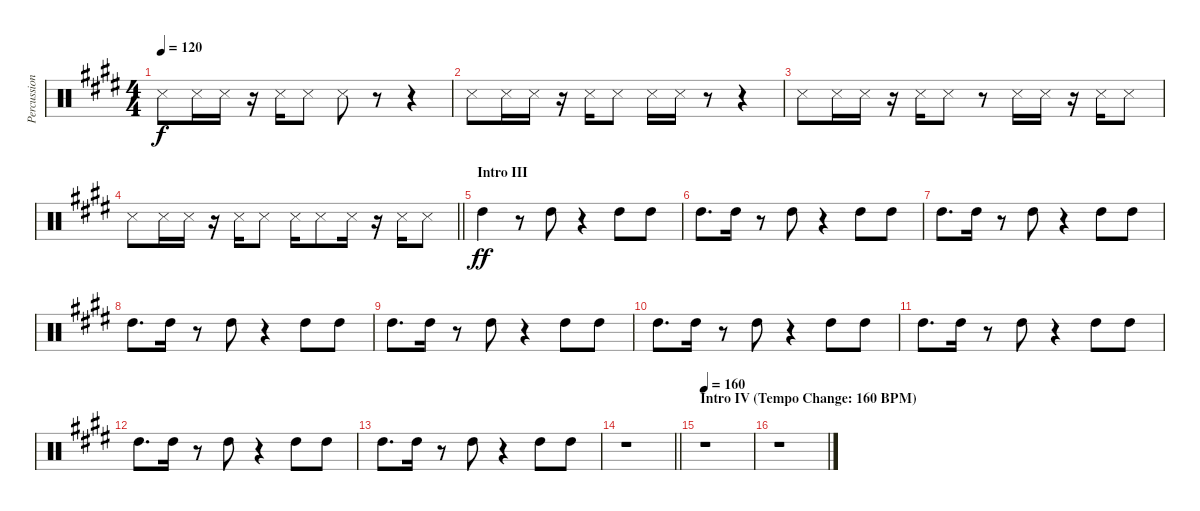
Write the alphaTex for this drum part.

\track ("Percussion I" "Percussion") {instrument percussion}
\staff {score}
\articulation defaults
\ts (4 4)
\tempo 120
\clef neutral
\ks e "Snare (side stick) 3".8{dy f} "Snare (side stick) 3".16 "Snare (side stick) 3".16
r.16 "Snare (side stick) 3".16 "Snare (side stick) 3".8 "Snare (side stick) 3".8 r.8 r.4 |
"Snare (side stick) 3".8 "Snare (side stick) 3".16 "Snare (side stick) 3".16 r.16 "Snare (side stick) 3".16 "Snare (side stick) 3".8 "Snare (side stick) 3".16 "Snare (side stick) 3".16 r.8 r.4 |
"Snare (side stick) 3".8 "Snare (side stick) 3".16 "Snare (side stick) 3".16 r.16 "Snare (side stick) 3".16 "Snare (side stick) 3".8 r.8 "Snare (side stick) 3".16 "Snare (side stick) 3".16 r.16 "Snare (side stick) 3".16 "Snare (side stick) 3".8 |
\barLineRight lightlight "Snare (side stick) 3".8 "Snare (side stick) 3".16 "Snare (side stick) 3".16
r.16 "Snare (side stick) 3".16 "Snare (side stick) 3".8 "Snare (side stick) 3".16 "Snare (side stick) 3".8 "Snare (side stick) 3".16 r.16 "Snare (side stick) 3".16 "Snare (side stick) 3".8 |
\section ("" "Intro III")
"High Tom (hit)".4{dy ff} r.8 "High Tom (hit)".8 r.4 "High Tom (hit)".8 "High Tom (hit)".8 |
"High Tom (hit)".8{d} "High Tom (hit)".16 r.8 "High Tom (hit)".8 r.4 "High Tom (hit)".8 "High Tom (hit)".8 |
"High Tom (hit)".8{d} "High Tom (hit)".16 r.8 "High Tom (hit)".8 r.4 "High Tom (hit)".8 "High Tom (hit)".8 |
"High Tom (hit)".8{d} "High Tom (hit)".16 r.8 "High Tom (hit)".8 r.4 "High Tom (hit)".8 "High Tom (hit)".8 |
"High Tom (hit)".8{d} "High Tom (hit)".16 r.8 "High Tom (hit)".8 r.4 "High Tom (hit)".8 "High Tom (hit)".8 |
"High Tom (hit)".8{d} "High Tom (hit)".16 r.8 "High Tom (hit)".8 r.4 "High Tom (hit)".8 "High Tom (hit)".8 |
"High Tom (hit)".8{d} "High Tom (hit)".16 r.8 "High Tom (hit)".8 r.4 "High Tom (hit)".8 "High Tom (hit)".8 |
"High Tom (hit)".8{d} "High Tom (hit)".16 r.8 "High Tom (hit)".8 r.4 "High Tom (hit)".8 "High Tom (hit)".8 |
"High Tom (hit)".8{d} "High Tom (hit)".16 r.8 "High Tom (hit)".8 r.4 "High Tom (hit)".8 "High Tom (hit)".8 |
\barLineRight lightlight
r.1 |
\section ("" "Intro IV (Tempo Change: 160 BPM)")
\tempo 160
r.1 |
r.1
